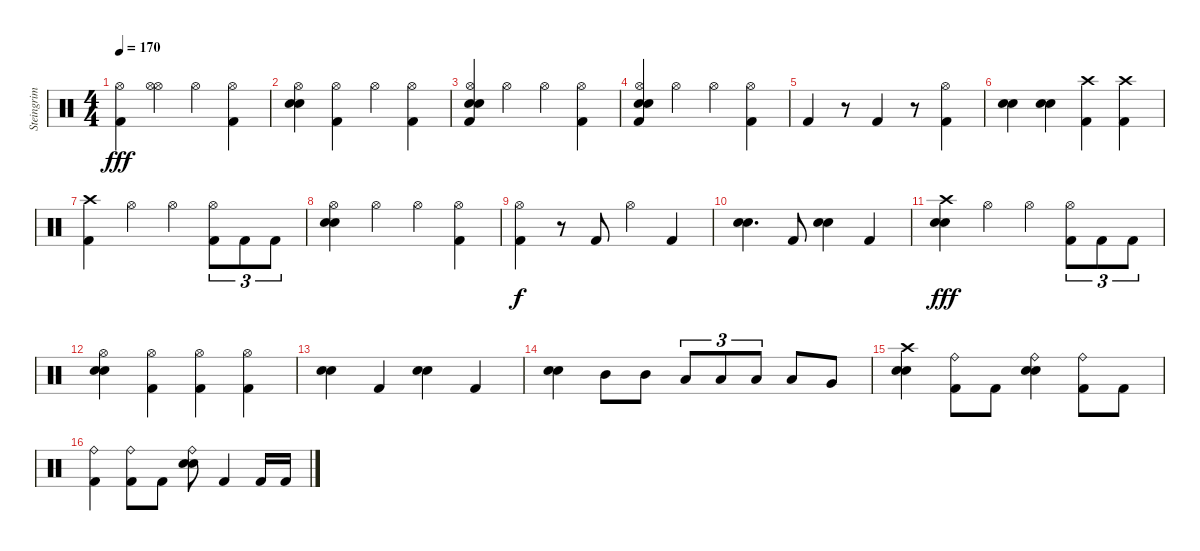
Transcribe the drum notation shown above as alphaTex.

\track ("Steingrim" "Steingrim") {instrument percussion}
\staff {score}
\articulation defaults
\ts (4 4)
\tempo 170
\clef neutral
\ks c
("Kick (hit) 2" "Hi-Hat (open)").4{dy fff} ("Hi-Hat (open)" "Hi-Hat (open)").4 "Hi-Hat (open)".4 ("Hi-Hat (open)" "Kick (hit) 2").4 |
("Snare (hit) 2" "Electric Snare (hit)" "Hi-Hat (open)").4 ("Kick (hit) 2" "Hi-Hat (open)").4 "Hi-Hat (open)".4 ("Kick (hit) 2" "Hi-Hat (open)").4 |
("Kick (hit) 2" "Snare (hit) 2" "Electric Snare (hit)" "Hi-Hat (open)").4 "Hi-Hat (open)".4 "Hi-Hat (open)".4 ("Kick (hit) 2" "Hi-Hat (open)").4 |
("Snare (hit) 2" "Electric Snare (hit)" "Kick (hit) 2" "Hi-Hat (open)").4 "Hi-Hat (open)".4 "Hi-Hat (open)".4 ("Kick (hit) 2" "Hi-Hat (open)").4 |
"Kick (hit) 2".4 r.8 "Kick (hit) 2".4 r.8 ("Kick (hit) 2" "Hi-Hat (open)").4 |
("Snare (hit) 2" "Electric Snare (hit)").4 ("Electric Snare (hit)" "Snare (hit) 2").4 ("Crash high (hit)" "Kick (hit) 2").4 ("Crash high (hit)" "Kick (hit) 2").4 |
("Crash high (hit)" "Kick (hit) 2").4 "Hi-Hat (open)".4 "Hi-Hat (open)".4 ("Kick (hit) 2" "Hi-Hat (open)").8{tu (3 2)} "Kick (hit) 2".8{tu (3 2)} "Kick (hit) 2".8{tu (3 2)} |
("Snare (hit) 2" "Hi-Hat (open)" "Electric Snare (hit)").4 "Hi-Hat (open)".4 "Hi-Hat (open)".4 ("Kick (hit) 2" "Hi-Hat (open)").4 |
("Hi-Hat (open)" "Kick (hit) 2").4{dy f} r.8 "Kick (hit) 2".8 "Hi-Hat (open)".4 "Kick (hit) 2".4 |
("Snare (hit) 2" "Electric Snare (hit)").4{d} "Kick (hit) 2".8 ("Snare (hit) 2" "Electric Snare (hit)").4 "Kick (hit) 2".4 |
("Snare (hit) 2" "Electric Snare (hit)" "Crash high (hit)").4{dy fff} "Hi-Hat (open)".4 "Hi-Hat (open)".4 ("Kick (hit) 2" "Hi-Hat (open)").8{tu (3 2)} "Kick (hit) 2".8{tu (3 2)} "Kick (hit) 2".8{tu (3 2)} |
("Snare (hit) 2" "Electric Snare (hit)" "Hi-Hat (open)").4 ("Kick (hit) 2" "Hi-Hat (open)").4 ("Kick (hit) 2" "Hi-Hat (open)").4 ("Kick (hit) 2" "Hi-Hat (open)").4 |
("Snare (hit) 2" "Electric Snare (hit)").4 "Kick (hit) 2".4 ("Snare (hit) 2" "Electric Snare (hit)").4 "Kick (hit) 2".4 |
("Snare (hit) 2" "Electric Snare (hit)").4 "Mid Tom (hit)".8 "Mid Tom (hit)".8 "Low Tom (hit)".8{tu (3 2)} "Low Tom (hit)".8{tu (3 2)} "Low Tom (hit)".8{tu (3 2)} "Low Tom (hit)".8 "Very Low Tom (hit)".8 |
("Snare (hit) 2" "Electric Snare (hit)" "Crash high (hit)").4 ("Kick (hit) 2" "Ride (bell)").8 "Kick (hit) 2".8 ("Snare (hit) 2" "Electric Snare (hit)" "Ride (bell)").4 ("Kick (hit) 2" "Ride (bell)").8 "Kick (hit) 2".8 |
("Kick (hit) 2" "Ride (bell)").4 ("Kick (hit) 2" "Ride (bell)").8 "Kick (hit) 2".8 ("Snare (hit) 2" "Electric Snare (hit)" "Ride (bell)").8 "Kick (hit) 2".4 "Kick (hit) 2".16 "Kick (hit) 2".16
